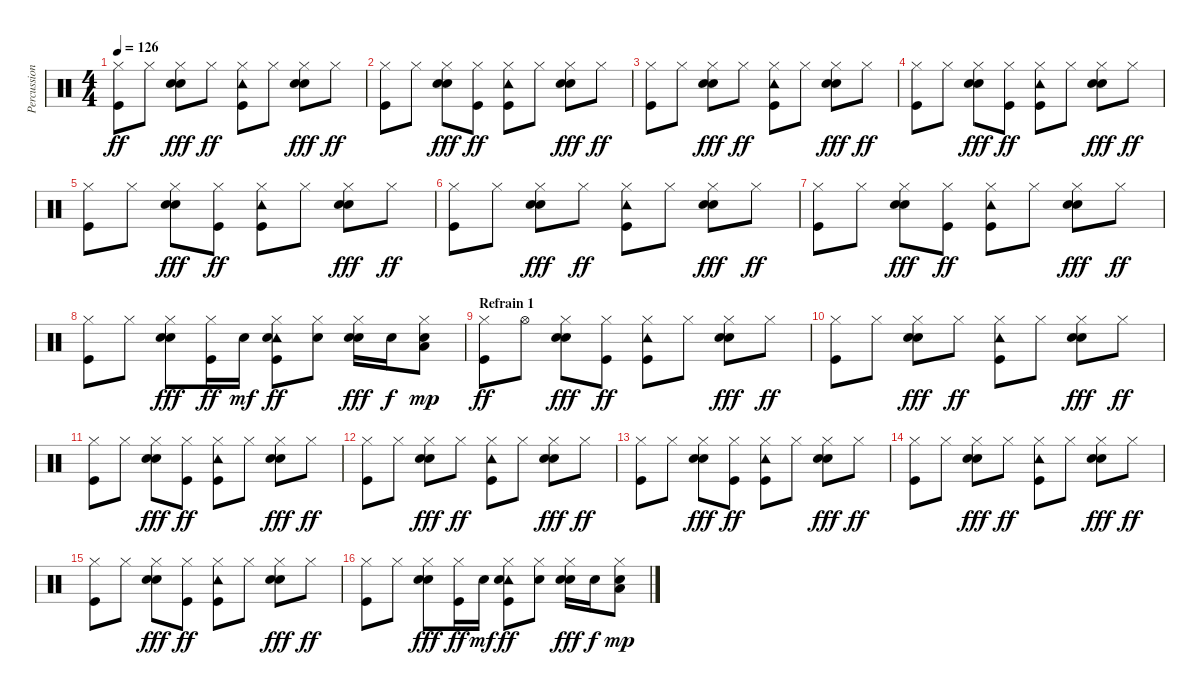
\track ("Percussions" "Percussion") {instrument percussion}
\staff {score}
\articulation defaults
\ts (4 4)
\tempo 126
\clef neutral
\ks c
("Hi-Hat (closed)" "Kick (hit)").8{dy ff} "Hi-Hat (closed)".8 ("Hi-Hat (closed)" "Hand Clap (hit)" "Electric Snare (hit)").8{dy fff} "Hi-Hat (closed)".8{dy ff} ("Hi-Hat (closed)" "Tambourine (hit)" "Kick (hit)").8 "Hi-Hat (closed)".8 ("Hi-Hat (closed)" "Hand Clap (hit)" "Electric Snare (hit)").8{dy fff} "Hi-Hat (closed)".8{dy ff} |
("Hi-Hat (closed)" "Kick (hit)").8 "Hi-Hat (closed)".8 ("Hi-Hat (closed)" "Hand Clap (hit)" "Electric Snare (hit)").8{dy fff} ("Hi-Hat (closed)" "Kick (hit)").8{dy ff} ("Hi-Hat (closed)" "Tambourine (hit)" "Kick (hit)").8 "Hi-Hat (closed)".8 ("Hi-Hat (closed)" "Hand Clap (hit)" "Electric Snare (hit)").8{dy fff} "Hi-Hat (closed)".8{dy ff} |
("Hi-Hat (closed)" "Kick (hit)").8 "Hi-Hat (closed)".8 ("Hi-Hat (closed)" "Hand Clap (hit)" "Electric Snare (hit)").8{dy fff} "Hi-Hat (closed)".8{dy ff} ("Hi-Hat (closed)" "Tambourine (hit)" "Kick (hit)").8 "Hi-Hat (closed)".8 ("Hi-Hat (closed)" "Hand Clap (hit)" "Electric Snare (hit)").8{dy fff} "Hi-Hat (closed)".8{dy ff} |
("Hi-Hat (closed)" "Kick (hit)").8 "Hi-Hat (closed)".8 ("Hi-Hat (closed)" "Hand Clap (hit)" "Electric Snare (hit)").8{dy fff} ("Hi-Hat (closed)" "Kick (hit)").8{dy ff} ("Hi-Hat (closed)" "Tambourine (hit)" "Kick (hit)").8 "Hi-Hat (closed)".8 ("Hi-Hat (closed)" "Hand Clap (hit)" "Electric Snare (hit)").8{dy fff} "Hi-Hat (closed)".8{dy ff} |
("Hi-Hat (closed)" "Kick (hit)").8 "Hi-Hat (closed)".8 ("Hi-Hat (closed)" "Hand Clap (hit)" "Electric Snare (hit)").8{dy fff} ("Hi-Hat (closed)" "Kick (hit)").8{dy ff} ("Hi-Hat (closed)" "Tambourine (hit)" "Kick (hit)").8 "Hi-Hat (closed)".8 ("Hi-Hat (closed)" "Hand Clap (hit)" "Electric Snare (hit)").8{dy fff} "Hi-Hat (closed)".8{dy ff} |
("Hi-Hat (closed)" "Kick (hit)").8 "Hi-Hat (closed)".8 ("Hi-Hat (closed)" "Hand Clap (hit)" "Electric Snare (hit)").8{dy fff} "Hi-Hat (closed)".8{dy ff} ("Hi-Hat (closed)" "Tambourine (hit)" "Kick (hit)").8 "Hi-Hat (closed)".8 ("Hi-Hat (closed)" "Hand Clap (hit)" "Electric Snare (hit)").8{dy fff} "Hi-Hat (closed)".8{dy ff} |
("Hi-Hat (closed)" "Kick (hit)").8 "Hi-Hat (closed)".8 ("Hi-Hat (closed)" "Hand Clap (hit)" "Electric Snare (hit)").8{dy fff} ("Hi-Hat (closed)" "Kick (hit)").8{dy ff} ("Hi-Hat (closed)" "Tambourine (hit)" "Kick (hit)").8 "Hi-Hat (closed)".8 ("Hi-Hat (closed)" "Hand Clap (hit)" "Electric Snare (hit)").8{dy fff} "Hi-Hat (closed)".8{dy ff} |
("Hi-Hat (closed)" "Kick (hit)").8 "Hi-Hat (closed)".8 ("Hi-Hat (closed)" "Hand Clap (hit)" "Electric Snare (hit)").8{dy fff} ("Hi-Hat (closed)" "Kick (hit)").16{dy ff} "Electric Snare (hit)".16{dy mf} ("Hi-Hat (closed)" "Tambourine (hit)" "Electric Snare (hit)" "Kick (hit)").8{dy ff} ("Hi-Hat (closed)" "Electric Snare (hit)").8 ("Hi-Hat (closed)" "Hand Clap (hit)" "Electric Snare (hit)").16{dy fff} "Electric Snare (hit)".16{dy f} ("Hi-Hat (closed)" "Low Tom (hit)" "Electric Snare (hit)").8{dy mp} |
\section ("" "Refrain 1")
("Hi-Hat (closed)" "Kick (hit)").8{dy ff} "Hi-Hat (open)".8 ("Hi-Hat (closed)" "Hand Clap (hit)" "Electric Snare (hit)").8{dy fff} ("Hi-Hat (closed)" "Kick (hit)").8{dy ff} ("Hi-Hat (closed)" "Tambourine (hit)" "Kick (hit)").8 "Hi-Hat (closed)".8 ("Hi-Hat (closed)" "Hand Clap (hit)" "Electric Snare (hit)").8{dy fff} "Hi-Hat (closed)".8{dy ff} |
("Hi-Hat (closed)" "Kick (hit)").8 "Hi-Hat (closed)".8 ("Hi-Hat (closed)" "Hand Clap (hit)" "Electric Snare (hit)").8{dy fff} "Hi-Hat (closed)".8{dy ff} ("Hi-Hat (closed)" "Tambourine (hit)" "Kick (hit)").8 "Hi-Hat (closed)".8 ("Hi-Hat (closed)" "Hand Clap (hit)" "Electric Snare (hit)").8{dy fff} "Hi-Hat (closed)".8{dy ff} |
("Hi-Hat (closed)" "Kick (hit)").8 "Hi-Hat (closed)".8 ("Hi-Hat (closed)" "Hand Clap (hit)" "Electric Snare (hit)").8{dy fff} ("Hi-Hat (closed)" "Kick (hit)").8{dy ff} ("Hi-Hat (closed)" "Tambourine (hit)" "Kick (hit)").8 "Hi-Hat (closed)".8 ("Hi-Hat (closed)" "Hand Clap (hit)" "Electric Snare (hit)").8{dy fff} "Hi-Hat (closed)".8{dy ff} |
("Hi-Hat (closed)" "Kick (hit)").8 "Hi-Hat (closed)".8 ("Hi-Hat (closed)" "Hand Clap (hit)" "Electric Snare (hit)").8{dy fff} "Hi-Hat (closed)".8{dy ff} ("Hi-Hat (closed)" "Tambourine (hit)" "Kick (hit)").8 "Hi-Hat (closed)".8 ("Hi-Hat (closed)" "Hand Clap (hit)" "Electric Snare (hit)").8{dy fff} "Hi-Hat (closed)".8{dy ff} |
("Hi-Hat (closed)" "Kick (hit)").8 "Hi-Hat (closed)".8 ("Hi-Hat (closed)" "Hand Clap (hit)" "Electric Snare (hit)").8{dy fff} ("Hi-Hat (closed)" "Kick (hit)").8{dy ff} ("Hi-Hat (closed)" "Tambourine (hit)" "Kick (hit)").8 "Hi-Hat (closed)".8 ("Hi-Hat (closed)" "Hand Clap (hit)" "Electric Snare (hit)").8{dy fff} "Hi-Hat (closed)".8{dy ff} |
("Hi-Hat (closed)" "Kick (hit)").8 "Hi-Hat (closed)".8 ("Hi-Hat (closed)" "Hand Clap (hit)" "Electric Snare (hit)").8{dy fff} "Hi-Hat (closed)".8{dy ff} ("Hi-Hat (closed)" "Tambourine (hit)" "Kick (hit)").8 "Hi-Hat (closed)".8 ("Hi-Hat (closed)" "Hand Clap (hit)" "Electric Snare (hit)").8{dy fff} "Hi-Hat (closed)".8{dy ff} |
("Hi-Hat (closed)" "Kick (hit)").8 "Hi-Hat (closed)".8 ("Hi-Hat (closed)" "Hand Clap (hit)" "Electric Snare (hit)").8{dy fff} ("Hi-Hat (closed)" "Kick (hit)").8{dy ff} ("Hi-Hat (closed)" "Tambourine (hit)" "Kick (hit)").8 "Hi-Hat (closed)".8 ("Hi-Hat (closed)" "Hand Clap (hit)" "Electric Snare (hit)").8{dy fff} "Hi-Hat (closed)".8{dy ff} |
("Hi-Hat (closed)" "Kick (hit)").8 "Hi-Hat (closed)".8 ("Hi-Hat (closed)" "Hand Clap (hit)" "Electric Snare (hit)").8{dy fff} ("Hi-Hat (closed)" "Kick (hit)").16{dy ff} "Electric Snare (hit)".16{dy mf} ("Hi-Hat (closed)" "Tambourine (hit)" "Electric Snare (hit)" "Kick (hit)").8{dy ff} ("Hi-Hat (closed)" "Electric Snare (hit)").8 ("Hi-Hat (closed)" "Hand Clap (hit)" "Electric Snare (hit)").16{dy fff} "Electric Snare (hit)".16{dy f} ("Hi-Hat (closed)" "Low Tom (hit)" "Electric Snare (hit)").8{dy mp}
